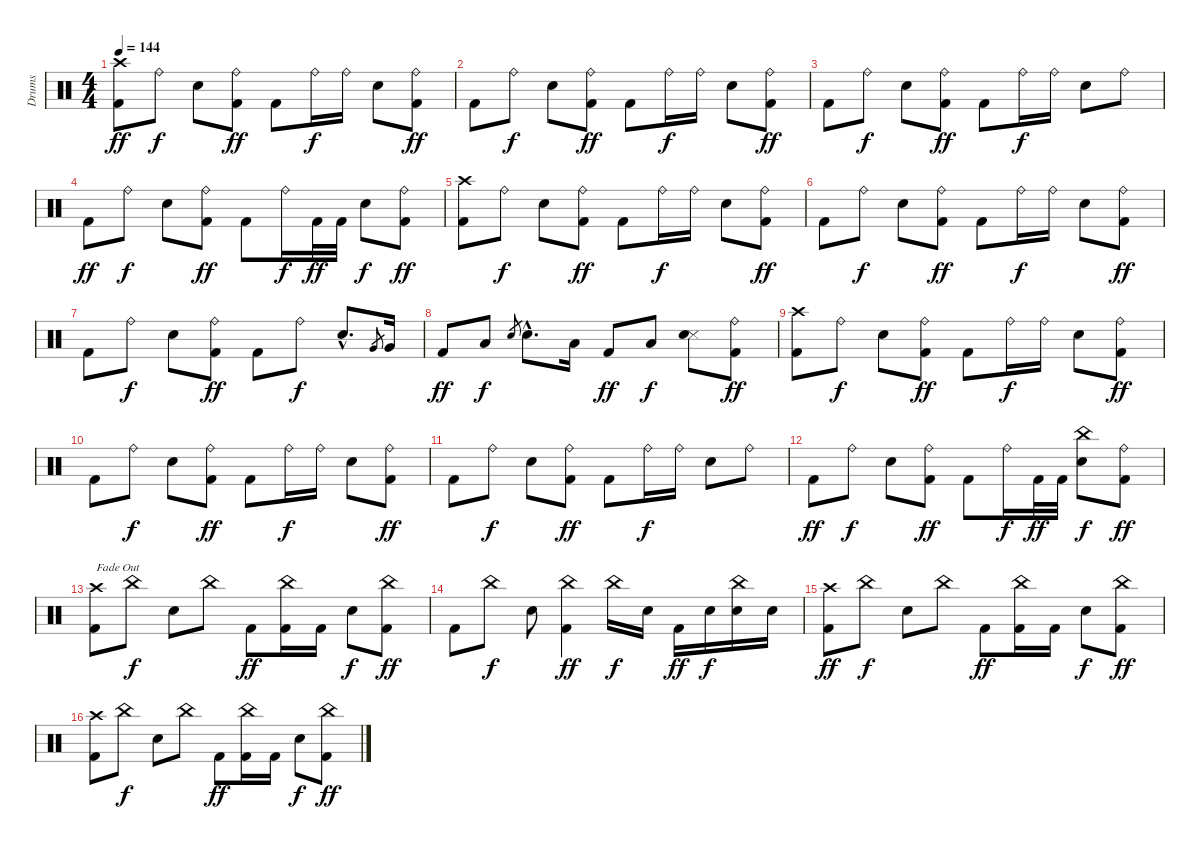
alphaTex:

\track ("Drums" "Drums") {instrument percussion}
\staff {score}
\articulation defaults
\ts (4 4)
\tempo 144
\clef neutral
\ks c
("Crash high (hit)" "Kick (hit) 2").8{dy ff} "Ride (bell)".8{dy f} "Snare (hit) 2".8 ("Ride (bell)" "Kick (hit) 2").8{dy ff} "Kick (hit) 2".8 "Ride (bell)".16{dy f} "Ride (bell)".16 "Snare (hit) 2".8 ("Ride (bell)" "Kick (hit) 2").8{dy ff} |
"Kick (hit) 2".8 "Ride (bell)".8{dy f} "Snare (hit) 2".8 ("Ride (bell)" "Kick (hit) 2").8{dy ff} "Kick (hit) 2".8 "Ride (bell)".16{dy f} "Ride (bell)".16 "Snare (hit) 2".8 ("Ride (bell)" "Kick (hit) 2").8{dy ff} |
"Kick (hit) 2".8 "Ride (bell)".8{dy f} "Snare (hit) 2".8 ("Ride (bell)" "Kick (hit) 2").8{dy ff} "Kick (hit) 2".8 "Ride (bell)".16{dy f} "Ride (bell)".16 "Snare (hit) 2".8 "Ride (bell)".8 |
"Kick (hit) 2".8{dy ff} "Ride (bell)".8{dy f} "Snare (hit) 2".8 ("Ride (bell)" "Kick (hit) 2").8{dy ff} "Kick (hit) 2".8 "Ride (bell)".16{dy f} "Kick (hit) 2".32{dy ff} "Kick (hit) 2".32 "Snare (hit) 2".8{dy f} ("Ride (bell)" "Kick (hit) 2").8{dy ff} |
("Crash high (hit)" "Kick (hit) 2").8 "Ride (bell)".8{dy f} "Snare (hit) 2".8 ("Ride (bell)" "Kick (hit) 2").8{dy ff} "Kick (hit) 2".8 "Ride (bell)".16{dy f} "Ride (bell)".16 "Snare (hit) 2".8 ("Ride (bell)" "Kick (hit) 2").8{dy ff} |
"Kick (hit) 2".8 "Ride (bell)".8{dy f} "Snare (hit) 2".8 ("Ride (bell)" "Kick (hit) 2").8{dy ff} "Kick (hit) 2".8 "Ride (bell)".16{dy f} "Ride (bell)".16 "Snare (hit) 2".8 ("Ride (bell)" "Kick (hit) 2").8{dy ff} |
"Kick (hit) 2".8 "Ride (bell)".8{dy f} "Snare (hit) 2".8 ("Ride (bell)" "Kick (hit) 2").8{dy ff} "Kick (hit) 2".8 "Ride (bell)".8{dy f} "Snare (hit) 2"{hac}.8{d} "Very Low Tom (hit)".8{gr} "Very Low Tom (hit)".16 |
"Kick (hit) 2".8{dy ff} "Low Floor Tom (hit)".8{dy f} "Snare (hit) 2".8{gr} "Snare (hit) 2"{hac}.8{d} "Low Tom (hit)".16 "Kick (hit) 2".8{dy ff} "Low Floor Tom (hit)".8{dy f} ("Snare (side stick) 3" "Snare (hit) 2").8 ("Ride (bell)" "Kick (hit) 2").8{dy ff} |
("Crash high (hit)" "Kick (hit) 2").8 "Ride (bell)".8{dy f} "Snare (hit) 2".8 ("Ride (bell)" "Kick (hit) 2").8{dy ff} "Kick (hit) 2".8 "Ride (bell)".16{dy f} "Ride (bell)".16 "Snare (hit) 2".8 ("Ride (bell)" "Kick (hit) 2").8{dy ff} |
"Kick (hit) 2".8 "Ride (bell)".8{dy f} "Snare (hit) 2".8 ("Ride (bell)" "Kick (hit) 2").8{dy ff} "Kick (hit) 2".8 "Ride (bell)".16{dy f} "Ride (bell)".16 "Snare (hit) 2".8 ("Ride (bell)" "Kick (hit) 2").8{dy ff} |
"Kick (hit) 2".8 "Ride (bell)".8{dy f} "Snare (hit) 2".8 ("Ride (bell)" "Kick (hit) 2").8{dy ff} "Kick (hit) 2".8 "Ride (bell)".16{dy f} "Ride (bell)".16 "Snare (hit) 2".8 "Ride (bell)".8 |
"Kick (hit) 2".8{dy ff} "Ride (bell)".8{dy f} "Snare (hit) 2".8 ("Ride (bell)" "Kick (hit) 2").8{dy ff} "Kick (hit) 2".8 "Ride (bell)".16{dy f} "Kick (hit) 2".32{dy ff} "Kick (hit) 2".32 ("China (hit)" "Snare (hit) 2").8{dy f} ("Ride (bell)" "Kick (hit) 2").8{dy ff} |
("Crash high (hit)" "Kick (hit) 2").8{txt "Fade Out" volume 14} "China (hit)".8{dy f} "Snare (hit) 2".8 "China (hit)".8 "Kick (hit) 2".8{dy ff} ("China (hit)" "Kick (hit) 2").16 "Kick (hit) 2".16 "Snare (hit) 2".8{dy f} ("China (hit)" "Kick (hit) 2").8{dy ff} |
"Kick (hit) 2".8{volume 12} "China (hit)".8{dy f} "Snare (hit) 2".8 ("China (hit)" "Kick (hit) 2").4{dy ff} "China (hit)".16{dy f} "Snare (hit) 2".16 "Kick (hit) 2".16{dy ff} "Snare (hit) 2".16{dy f} ("China (hit)" "Snare (hit) 2").16 "Snare (hit) 2".16 |
("Crash high (hit)" "Kick (hit) 2").8{dy ff volume 10} "China (hit)".8{dy f} "Snare (hit) 2".8 "China (hit)".8 "Kick (hit) 2".8{dy ff} ("China (hit)" "Kick (hit) 2").16 "Kick (hit) 2".16 "Snare (hit) 2".8{dy f} ("China (hit)" "Kick (hit) 2").8{dy ff} |
("Crash high (hit)" "Kick (hit) 2").8{volume 8} "China (hit)".8{dy f} "Snare (hit) 2".8 "China (hit)".8 "Kick (hit) 2".8{dy ff} ("China (hit)" "Kick (hit) 2").16 "Kick (hit) 2".16 "Snare (hit) 2".8{dy f} ("China (hit)" "Kick (hit) 2").8{dy ff}
